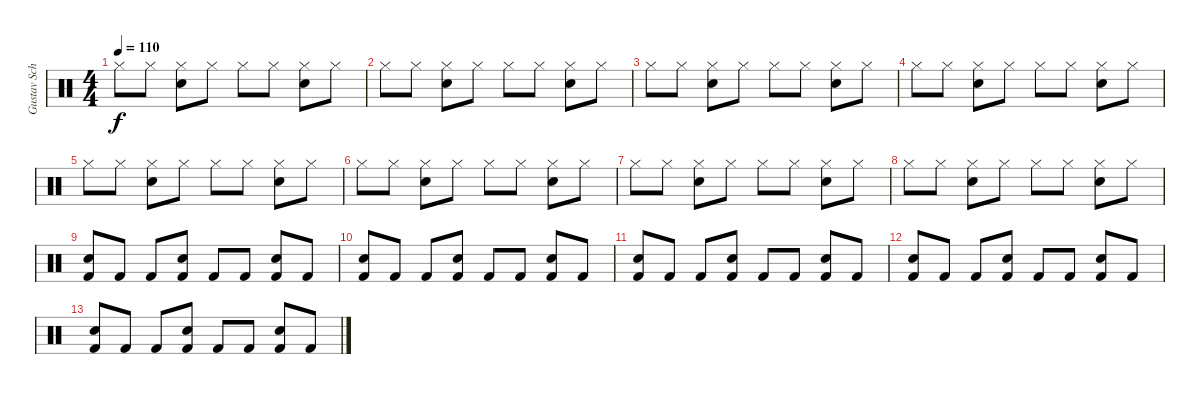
\track ("Gustav Schafer" "Gustav Sch") {instrument percussion}
\staff {score}
\articulation defaults
\ts (4 4)
\tempo 110
\clef neutral
\ks c "Hi-Hat (closed)".8{dy f} "Hi-Hat (closed)".8
("Hi-Hat (closed)" "Snare (hit) 2").8 "Hi-Hat (closed)".8 "Hi-Hat (closed)".8 "Hi-Hat (closed)".8 ("Hi-Hat (closed)" "Snare (hit) 2").8 "Hi-Hat (closed)".8 |
"Hi-Hat (closed)".8 "Hi-Hat (closed)".8 ("Hi-Hat (closed)" "Snare (hit) 2").8 "Hi-Hat (closed)".8 "Hi-Hat (closed)".8 "Hi-Hat (closed)".8 ("Hi-Hat (closed)" "Snare (hit) 2").8 "Hi-Hat (closed)".8 |
"Hi-Hat (closed)".8 "Hi-Hat (closed)".8 ("Hi-Hat (closed)" "Snare (hit) 2").8 "Hi-Hat (closed)".8 "Hi-Hat (closed)".8 "Hi-Hat (closed)".8 ("Hi-Hat (closed)" "Snare (hit) 2").8 "Hi-Hat (closed)".8 |
"Hi-Hat (closed)".8 "Hi-Hat (closed)".8 ("Hi-Hat (closed)" "Snare (hit) 2").8 "Hi-Hat (closed)".8 "Hi-Hat (closed)".8 "Hi-Hat (closed)".8 ("Hi-Hat (closed)" "Snare (hit) 2").8 "Hi-Hat (closed)".8 |
"Hi-Hat (closed)".8 "Hi-Hat (closed)".8 ("Hi-Hat (closed)" "Snare (hit) 2").8 "Hi-Hat (closed)".8 "Hi-Hat (closed)".8 "Hi-Hat (closed)".8 ("Hi-Hat (closed)" "Snare (hit) 2").8 "Hi-Hat (closed)".8 |
"Hi-Hat (closed)".8 "Hi-Hat (closed)".8 ("Hi-Hat (closed)" "Snare (hit) 2").8 "Hi-Hat (closed)".8 "Hi-Hat (closed)".8 "Hi-Hat (closed)".8 ("Hi-Hat (closed)" "Snare (hit) 2").8 "Hi-Hat (closed)".8 |
"Hi-Hat (closed)".8 "Hi-Hat (closed)".8 ("Hi-Hat (closed)" "Snare (hit) 2").8 "Hi-Hat (closed)".8 "Hi-Hat (closed)".8 "Hi-Hat (closed)".8 ("Hi-Hat (closed)" "Snare (hit) 2").8 "Hi-Hat (closed)".8 |
"Hi-Hat (closed)".8 "Hi-Hat (closed)".8 ("Hi-Hat (closed)" "Snare (hit) 2").8 "Hi-Hat (closed)".8 "Hi-Hat (closed)".8 "Hi-Hat (closed)".8 ("Hi-Hat (closed)" "Snare (hit) 2").8 "Hi-Hat (closed)".8 |
("Snare (hit) 2" "Kick (hit) 2").8 "Kick (hit) 2".8 "Kick (hit) 2".8 ("Snare (hit) 2" "Kick (hit) 2").8 "Kick (hit) 2".8 "Kick (hit) 2".8 ("Snare (hit) 2" "Kick (hit) 2").8 "Kick (hit) 2".8 |
("Snare (hit) 2" "Kick (hit) 2").8 "Kick (hit) 2".8 "Kick (hit) 2".8 ("Snare (hit) 2" "Kick (hit) 2").8 "Kick (hit) 2".8 "Kick (hit) 2".8 ("Snare (hit) 2" "Kick (hit) 2").8 "Kick (hit) 2".8 |
("Snare (hit) 2" "Kick (hit) 2").8 "Kick (hit) 2".8 "Kick (hit) 2".8 ("Snare (hit) 2" "Kick (hit) 2").8 "Kick (hit) 2".8 "Kick (hit) 2".8 ("Snare (hit) 2" "Kick (hit) 2").8 "Kick (hit) 2".8 |
("Snare (hit) 2" "Kick (hit) 2").8 "Kick (hit) 2".8 "Kick (hit) 2".8 ("Snare (hit) 2" "Kick (hit) 2").8 "Kick (hit) 2".8 "Kick (hit) 2".8 ("Snare (hit) 2" "Kick (hit) 2").8 "Kick (hit) 2".8 |
("Snare (hit) 2" "Kick (hit) 2").8 "Kick (hit) 2".8 "Kick (hit) 2".8 ("Snare (hit) 2" "Kick (hit) 2").8 "Kick (hit) 2".8 "Kick (hit) 2".8 ("Snare (hit) 2" "Kick (hit) 2").8 "Kick (hit) 2".8
